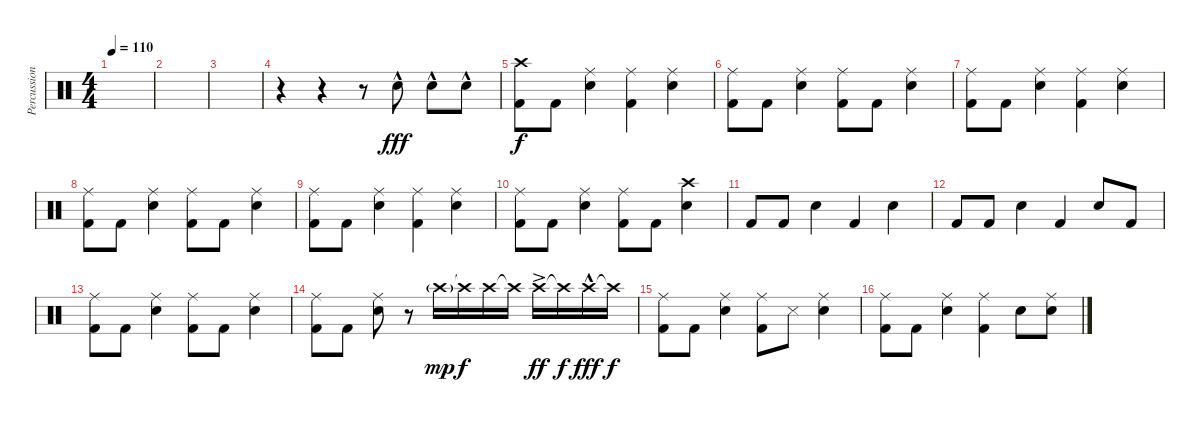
\track ("Percussion" "Percussion") {instrument percussion}
\staff {score}
\articulation defaults
\ts (4 4)
\tempo 110
\clef neutral
\ks c
|
|
|
r.4 r.4 r.8 "Snare (hit) 2"{hac}.8{dy fff} "Snare (hit) 2"{hac}.8 "Snare (hit) 2"{hac}.8 |
("Crash high (hit)" "Kick (hit) 2").8{dy f} "Kick (hit) 2".8 ("Ride (middle)" "Snare (hit) 2").4 ("Ride (middle)" "Kick (hit) 2").4 ("Ride (middle)" "Snare (hit) 2").4 |
("Ride (middle)" "Kick (hit) 2").8 "Kick (hit) 2".8 ("Ride (middle)" "Snare (hit) 2").4 ("Ride (middle)" "Kick (hit) 2").8 "Kick (hit) 2".8 ("Ride (middle)" "Snare (hit) 2").4 |
("Ride (middle)" "Kick (hit) 2").8 "Kick (hit) 2".8 ("Ride (middle)" "Snare (hit) 2").4 ("Ride (middle)" "Kick (hit) 2").4 ("Ride (middle)" "Snare (hit) 2").4 |
("Ride (middle)" "Kick (hit) 2").8 "Kick (hit) 2".8 ("Ride (middle)" "Snare (hit) 2").4 ("Ride (middle)" "Kick (hit) 2").8 "Kick (hit) 2".8 ("Ride (middle)" "Snare (hit) 2").4 |
("Ride (middle)" "Kick (hit) 2").8 "Kick (hit) 2".8 ("Ride (middle)" "Snare (hit) 2").4 ("Ride (middle)" "Kick (hit) 2").4 ("Ride (middle)" "Snare (hit) 2").4 |
("Ride (middle)" "Kick (hit) 2").8 "Kick (hit) 2".8 ("Ride (middle)" "Snare (hit) 2").4 ("Ride (middle)" "Kick (hit) 2").8 "Kick (hit) 2".8 ("Crash high (hit)" "Snare (hit) 2").4 |
"Kick (hit) 2".8 "Kick (hit) 2".8 "Snare (hit) 2".4 "Kick (hit) 2".4 "Snare (hit) 2".4 |
"Kick (hit) 2".8 "Kick (hit) 2".8 "Snare (hit) 2".4 "Kick (hit) 2".4 "Snare (hit) 2".8 "Kick (hit) 2".8 |
("Ride (middle)" "Kick (hit) 2").8 "Kick (hit) 2".8 ("Ride (middle)" "Snare (hit) 2").4 ("Ride (middle)" "Kick (hit) 2").8 "Kick (hit) 2".8 ("Ride (middle)" "Snare (hit) 2").4 |
("Ride (middle)" "Kick (hit) 2").8 "Kick (hit) 2".8 ("Ride (middle)" "Snare (hit) 2").8 r.8 "Crash high (hit)"{g}.16{dy mp} "Crash high (hit)"{t}.16{dy f} "Crash high (hit)".16 "Crash high (hit)"{t}.16 "Crash high (hit)"{ac}.16{dy ff} "Crash high (hit)"{t}.16{dy f} "Crash high (hit)"{hac}.16{dy fff} "Crash high (hit)"{t}.16{dy f} |
("Ride (middle)" "Kick (hit) 2").8 "Kick (hit) 2".8 ("Ride (middle)" "Snare (hit) 2").4 ("Ride (middle)" "Kick (hit) 2").8 "Snare (side stick) 3".8 ("Ride (middle)" "Snare (hit) 2").4 |
("Ride (middle)" "Kick (hit) 2").8 "Kick (hit) 2".8 ("Ride (middle)" "Snare (hit) 2").4 ("Ride (middle)" "Kick (hit) 2").4 "Snare (hit) 2".8 ("Ride (middle)" "Snare (hit) 2").8
